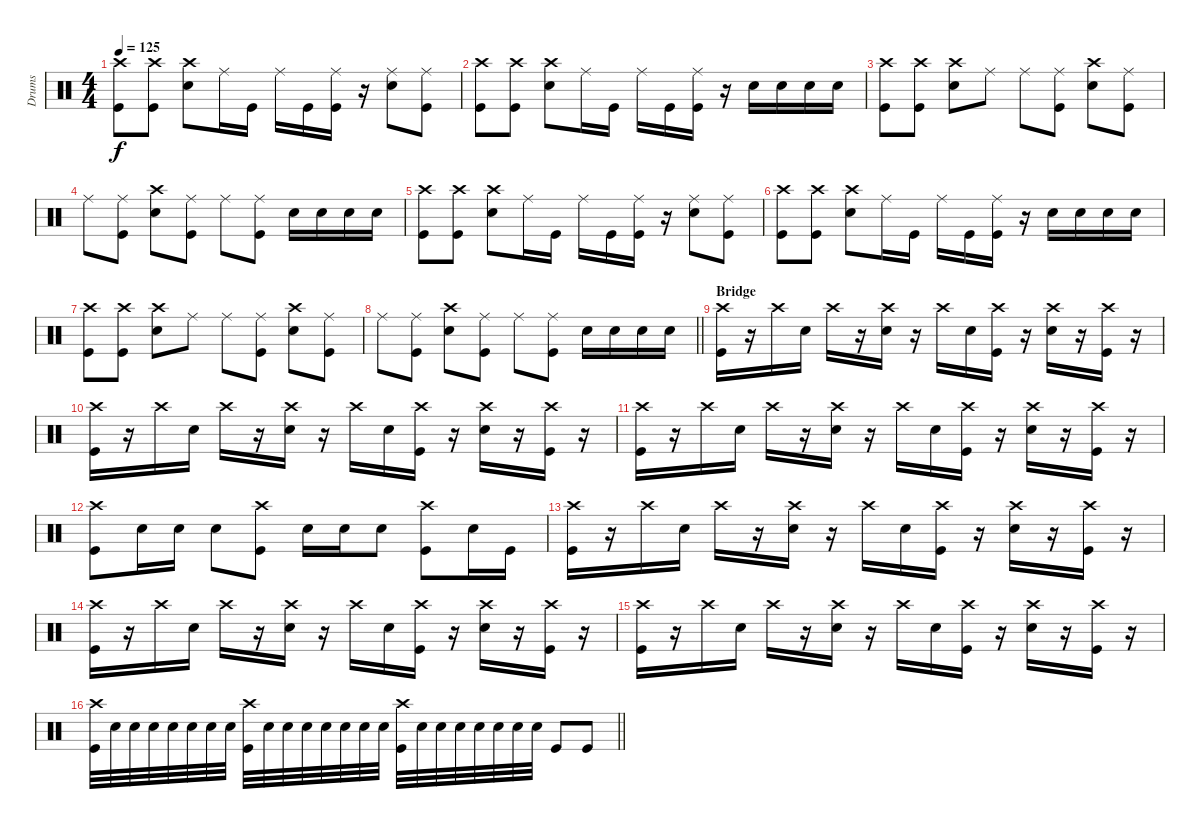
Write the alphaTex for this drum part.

\track ("Drums" "Drums") {instrument percussion}
\staff {score}
\articulation defaults
\ts (4 4)
\tempo 125
\clef neutral
\ks c
("Crash high (hit)" "Kick (hit)").8{dy f} ("Crash high (hit)" "Kick (hit)").8 ("Snare (hit) 2" "Crash high (hit)").8 "Ride (middle)".16 "Kick (hit)".16 "Ride (middle)".16 "Kick (hit)".16 ("Kick (hit)" "Ride (middle)").16 r.16 ("Snare (hit) 2" "Ride (middle)").8 ("Ride (middle)" "Kick (hit)").8 |
("Crash high (hit)" "Kick (hit)").8 ("Crash high (hit)" "Kick (hit)").8 ("Snare (hit) 2" "Crash high (hit)").8 "Ride (middle)".16 "Kick (hit)".16 "Ride (middle)".16 "Kick (hit)".16 ("Kick (hit)" "Ride (middle)").16 r.16 "Snare (hit) 2".16 "Snare (hit) 2".16 "Snare (hit) 2".16 "Snare (hit) 2".16 |
("Crash high (hit)" "Kick (hit)").8 ("Crash high (hit)" "Kick (hit)").8 ("Snare (hit) 2" "Crash high (hit)").8 "Ride (middle)".8 "Ride (middle)".8 ("Ride (middle)" "Kick (hit)").8 ("Snare (hit) 2" "Crash high (hit)").8 ("Ride (middle)" "Kick (hit)").8 |
"Ride (middle)".8 ("Ride (middle)" "Kick (hit)").8 ("Snare (hit) 2" "Crash high (hit)").8 ("Kick (hit)" "Ride (middle)").8 "Ride (middle)".8 ("Ride (middle)" "Kick (hit)").8 "Snare (hit) 2".16 "Snare (hit) 2".16 "Snare (hit) 2".16 "Snare (hit) 2".16 |
("Crash high (hit)" "Kick (hit)").8 ("Crash high (hit)" "Kick (hit)").8 ("Snare (hit) 2" "Crash high (hit)").8 "Ride (middle)".16 "Kick (hit)".16 "Ride (middle)".16 "Kick (hit)".16 ("Kick (hit)" "Ride (middle)").16 r.16 ("Snare (hit) 2" "Ride (middle)").8 ("Ride (middle)" "Kick (hit)").8 |
("Crash high (hit)" "Kick (hit)").8 ("Crash high (hit)" "Kick (hit)").8 ("Snare (hit) 2" "Crash high (hit)").8 "Ride (middle)".16 "Kick (hit)".16 "Ride (middle)".16 "Kick (hit)".16 ("Kick (hit)" "Ride (middle)").16 r.16 "Snare (hit) 2".16 "Snare (hit) 2".16 "Snare (hit) 2".16 "Snare (hit) 2".16 |
("Crash high (hit)" "Kick (hit)").8 ("Crash high (hit)" "Kick (hit)").8 ("Snare (hit) 2" "Crash high (hit)").8 "Ride (middle)".8 "Ride (middle)".8 ("Ride (middle)" "Kick (hit)").8 ("Snare (hit) 2" "Crash high (hit)").8 ("Ride (middle)" "Kick (hit)").8 |
\barLineRight lightlight "Ride (middle)".8
("Ride (middle)" "Kick (hit)").8 ("Snare (hit) 2" "Crash high (hit)").8 ("Kick (hit)" "Ride (middle)").8 "Ride (middle)".8 ("Ride (middle)" "Kick (hit)").8 "Snare (hit) 2".16 "Snare (hit) 2".16 "Snare (hit) 2".16 "Snare (hit) 2".16 |
\section ("" "Bridge")
("Crash high (hit)" "Kick (hit)").16 r.16 "Crash high (hit)".16 "Snare (hit) 2".16 "Crash high (hit)".16 r.16 ("Crash high (hit)" "Snare (hit) 2").16 r.16 "Crash high (hit)".16 "Snare (hit) 2".16 ("Crash high (hit)" "Kick (hit)").16 r.16 ("Crash high (hit)" "Snare (hit) 2").16 r.16 ("Crash high (hit)" "Kick (hit)").16 r.16 |
("Crash high (hit)" "Kick (hit)").16 r.16 "Crash high (hit)".16 "Snare (hit) 2".16 "Crash high (hit)".16 r.16 ("Crash high (hit)" "Snare (hit) 2").16 r.16 "Crash high (hit)".16 "Snare (hit) 2".16 ("Crash high (hit)" "Kick (hit)").16 r.16 ("Crash high (hit)" "Snare (hit) 2").16 r.16 ("Crash high (hit)" "Kick (hit)").16 r.16 |
("Crash high (hit)" "Kick (hit)").16 r.16 "Crash high (hit)".16 "Snare (hit) 2".16 "Crash high (hit)".16 r.16 ("Crash high (hit)" "Snare (hit) 2").16 r.16 "Crash high (hit)".16 "Snare (hit) 2".16 ("Crash high (hit)" "Kick (hit)").16 r.16 ("Crash high (hit)" "Snare (hit) 2").16 r.16 ("Crash high (hit)" "Kick (hit)").16 r.16 |
("Kick (hit)" "Crash high (hit)").8 "Snare (hit) 2".16 "Snare (hit) 2".16 "Snare (hit) 2".8 ("Kick (hit)" "Crash high (hit)").8 "Snare (hit) 2".16 "Snare (hit) 2".16 "Snare (hit) 2".8 ("Kick (hit)" "Crash high (hit)").8 "Snare (hit) 2".16 "Kick (hit)".16 |
("Crash high (hit)" "Kick (hit)").16 r.16 "Crash high (hit)".16 "Snare (hit) 2".16 "Crash high (hit)".16 r.16 ("Crash high (hit)" "Snare (hit) 2").16 r.16 "Crash high (hit)".16 "Snare (hit) 2".16 ("Crash high (hit)" "Kick (hit)").16 r.16 ("Crash high (hit)" "Snare (hit) 2").16 r.16 ("Crash high (hit)" "Kick (hit)").16 r.16 |
("Crash high (hit)" "Kick (hit)").16 r.16 "Crash high (hit)".16 "Snare (hit) 2".16 "Crash high (hit)".16 r.16 ("Crash high (hit)" "Snare (hit) 2").16 r.16 "Crash high (hit)".16 "Snare (hit) 2".16 ("Crash high (hit)" "Kick (hit)").16 r.16 ("Crash high (hit)" "Snare (hit) 2").16 r.16 ("Crash high (hit)" "Kick (hit)").16 r.16 |
("Crash high (hit)" "Kick (hit)").16 r.16 "Crash high (hit)".16 "Snare (hit) 2".16 "Crash high (hit)".16 r.16 ("Crash high (hit)" "Snare (hit) 2").16 r.16 "Crash high (hit)".16 "Snare (hit) 2".16 ("Crash high (hit)" "Kick (hit)").16 r.16 ("Crash high (hit)" "Snare (hit) 2").16 r.16 ("Crash high (hit)" "Kick (hit)").16 r.16 |
\barLineRight lightlight
("Kick (hit)" "Crash high (hit)").32 "Snare (hit) 2".32 "Snare (hit) 2".32 "Snare (hit) 2".32 "Snare (hit) 2".32 "Snare (hit) 2".32 "Snare (hit) 2".32 "Snare (hit) 2".32 ("Kick (hit)" "Crash high (hit)").32 "Snare (hit) 2".32 "Snare (hit) 2".32 "Snare (hit) 2".32 "Snare (hit) 2".32 "Snare (hit) 2".32 "Snare (hit) 2".32 "Snare (hit) 2".32 ("Kick (hit)" "Crash high (hit)").32 "Snare (hit) 2".32 "Snare (hit) 2".32 "Snare (hit) 2".32 "Snare (hit) 2".32 "Snare (hit) 2".32 "Snare (hit) 2".32 "Snare (hit) 2".32 "Kick (hit)".8 "Kick (hit)".8
